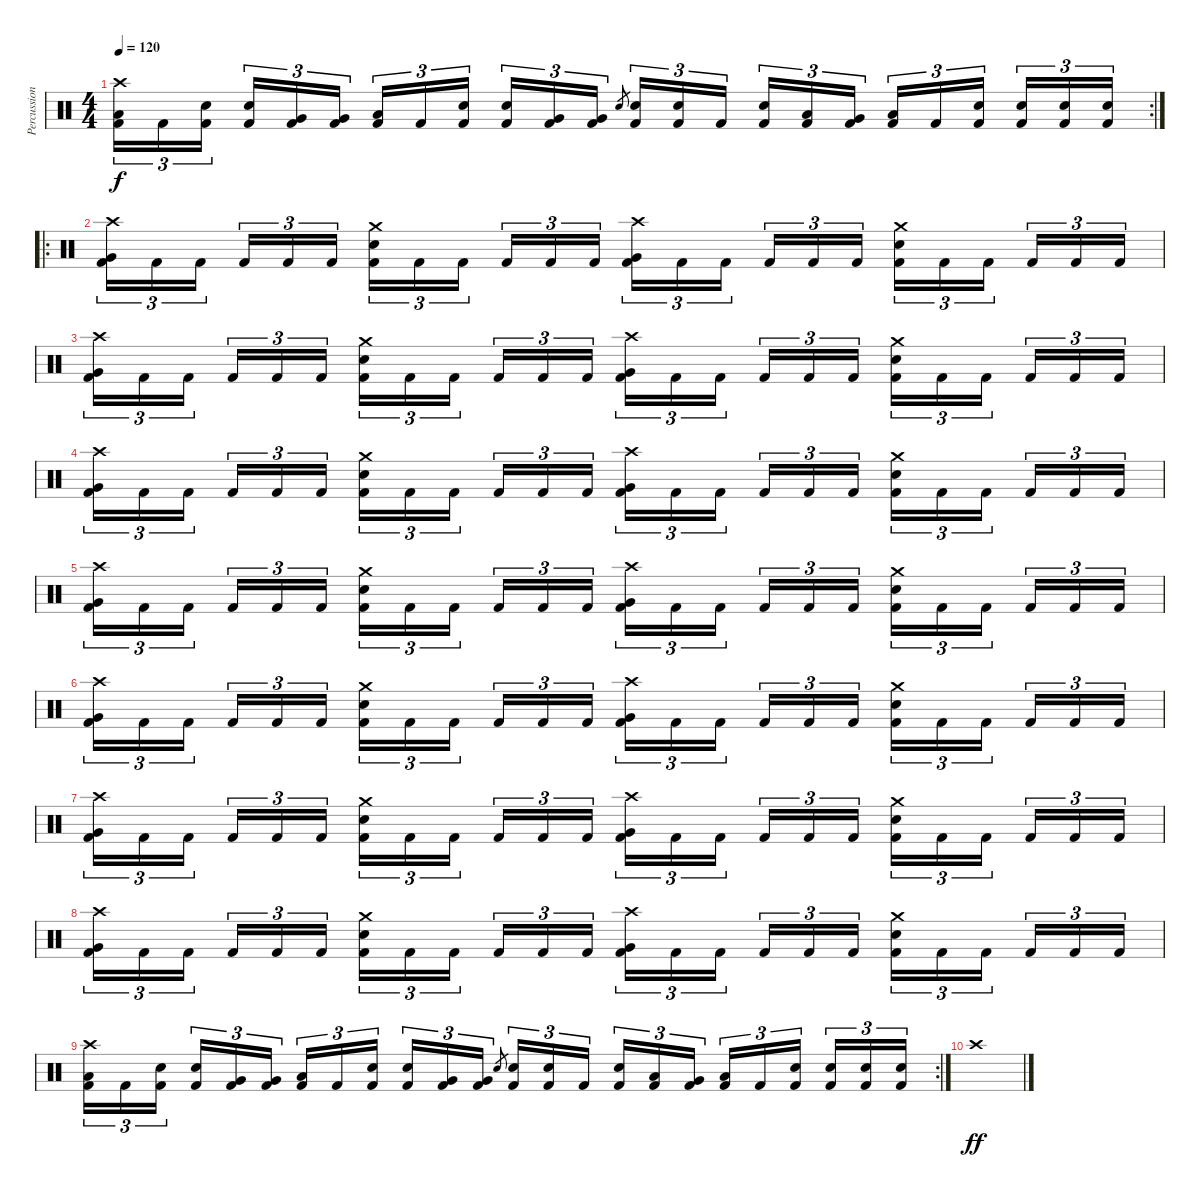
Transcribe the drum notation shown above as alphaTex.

\track ("Percussion" "Percussion") {instrument percussion}
\staff {score}
\articulation defaults
\rc 2
\ts (4 4)
\tempo 120
\clef neutral
\ks c
("Crash high (hit)" "Low Floor Tom (hit)" "Kick (hit) 2").16{tu (3 2) dy f} "Kick (hit) 2".16{tu (3 2)} ("Electric Snare (hit)" "Kick (hit) 2").16{tu (3 2)} ("Electric Snare (hit)" "Kick (hit) 2").16{tu (3 2)} ("Very Low Tom (hit)" "Kick (hit) 2").16{tu (3 2)} ("Very Low Tom (hit)" "Kick (hit) 2").16{tu (3 2)} ("Low Floor Tom (hit)" "Kick (hit) 2").16{tu (3 2)} "Kick (hit) 2".16{tu (3 2)} ("Electric Snare (hit)" "Kick (hit) 2").16{tu (3 2)} ("Electric Snare (hit)" "Kick (hit) 2").16{tu (3 2)} ("Very Low Tom (hit)" "Kick (hit) 2").16{tu (3 2)} ("Very Low Tom (hit)" "Kick (hit) 2").16{tu (3 2)} "Electric Snare (hit)".8{gr} ("Electric Snare (hit)" "Kick (hit) 2").16{tu (3 2)} ("Electric Snare (hit)" "Kick (hit) 2").16{tu (3 2)} "Kick (hit) 2".16{tu (3 2)} ("Electric Snare (hit)" "Kick (hit) 2").16{tu (3 2)} ("Low Tom (hit)" "Kick (hit) 2").16{tu (3 2)} ("Very Low Tom (hit)" "Kick (hit) 2").16{tu (3 2)} ("Low Floor Tom (hit)" "Kick (hit) 2").16{tu (3 2)} "Kick (hit) 2".16{tu (3 2)} ("Electric Snare (hit)" "Kick (hit) 2").16{tu (3 2)} ("Electric Snare (hit)" "Kick (hit) 2").16{tu (3 2)} ("Electric Snare (hit)" "Kick (hit) 2").16{tu (3 2)} ("Electric Snare (hit)" "Kick (hit) 2").16{tu (3 2)} |
\ro
("Crash high (hit)" "Very Low Tom (hit)" "Kick (hit) 2").16{tu (3 2)} "Kick (hit) 2".16{tu (3 2)} "Kick (hit) 2".16{tu (3 2)} "Kick (hit) 2".16{tu (3 2)} "Kick (hit) 2".16{tu (3 2)} "Kick (hit) 2".16{tu (3 2)} ("Crash medium (hit)" "Electric Snare (hit)" "Kick (hit) 2").16{tu (3 2)} "Kick (hit) 2".16{tu (3 2)} "Kick (hit) 2".16{tu (3 2)} "Kick (hit) 2".16{tu (3 2)} "Kick (hit) 2".16{tu (3 2)} "Kick (hit) 2".16{tu (3 2)} ("Crash high (hit)" "Very Low Tom (hit)" "Kick (hit) 2").16{tu (3 2)} "Kick (hit) 2".16{tu (3 2)} "Kick (hit) 2".16{tu (3 2)} "Kick (hit) 2".16{tu (3 2)} "Kick (hit) 2".16{tu (3 2)} "Kick (hit) 2".16{tu (3 2)} ("Crash medium (hit)" "Electric Snare (hit)" "Kick (hit) 2").16{tu (3 2)} "Kick (hit) 2".16{tu (3 2)} "Kick (hit) 2".16{tu (3 2)} "Kick (hit) 2".16{tu (3 2)} "Kick (hit) 2".16{tu (3 2)} "Kick (hit) 2".16{tu (3 2)} |
("Crash high (hit)" "Very Low Tom (hit)" "Kick (hit) 2").16{tu (3 2)} "Kick (hit) 2".16{tu (3 2)} "Kick (hit) 2".16{tu (3 2)} "Kick (hit) 2".16{tu (3 2)} "Kick (hit) 2".16{tu (3 2)} "Kick (hit) 2".16{tu (3 2)} ("Crash medium (hit)" "Electric Snare (hit)" "Kick (hit) 2").16{tu (3 2)} "Kick (hit) 2".16{tu (3 2)} "Kick (hit) 2".16{tu (3 2)} "Kick (hit) 2".16{tu (3 2)} "Kick (hit) 2".16{tu (3 2)} "Kick (hit) 2".16{tu (3 2)} ("Crash high (hit)" "Very Low Tom (hit)" "Kick (hit) 2").16{tu (3 2)} "Kick (hit) 2".16{tu (3 2)} "Kick (hit) 2".16{tu (3 2)} "Kick (hit) 2".16{tu (3 2)} "Kick (hit) 2".16{tu (3 2)} "Kick (hit) 2".16{tu (3 2)} ("Crash medium (hit)" "Electric Snare (hit)" "Kick (hit) 2").16{tu (3 2)} "Kick (hit) 2".16{tu (3 2)} "Kick (hit) 2".16{tu (3 2)} "Kick (hit) 2".16{tu (3 2)} "Kick (hit) 2".16{tu (3 2)} "Kick (hit) 2".16{tu (3 2)} |
("Crash high (hit)" "Very Low Tom (hit)" "Kick (hit) 2").16{tu (3 2)} "Kick (hit) 2".16{tu (3 2)} "Kick (hit) 2".16{tu (3 2)} "Kick (hit) 2".16{tu (3 2)} "Kick (hit) 2".16{tu (3 2)} "Kick (hit) 2".16{tu (3 2)} ("Crash medium (hit)" "Electric Snare (hit)" "Kick (hit) 2").16{tu (3 2)} "Kick (hit) 2".16{tu (3 2)} "Kick (hit) 2".16{tu (3 2)} "Kick (hit) 2".16{tu (3 2)} "Kick (hit) 2".16{tu (3 2)} "Kick (hit) 2".16{tu (3 2)} ("Crash high (hit)" "Very Low Tom (hit)" "Kick (hit) 2").16{tu (3 2)} "Kick (hit) 2".16{tu (3 2)} "Kick (hit) 2".16{tu (3 2)} "Kick (hit) 2".16{tu (3 2)} "Kick (hit) 2".16{tu (3 2)} "Kick (hit) 2".16{tu (3 2)} ("Crash medium (hit)" "Electric Snare (hit)" "Kick (hit) 2").16{tu (3 2)} "Kick (hit) 2".16{tu (3 2)} "Kick (hit) 2".16{tu (3 2)} "Kick (hit) 2".16{tu (3 2)} "Kick (hit) 2".16{tu (3 2)} "Kick (hit) 2".16{tu (3 2)} |
("Crash high (hit)" "Very Low Tom (hit)" "Kick (hit) 2").16{tu (3 2)} "Kick (hit) 2".16{tu (3 2)} "Kick (hit) 2".16{tu (3 2)} "Kick (hit) 2".16{tu (3 2)} "Kick (hit) 2".16{tu (3 2)} "Kick (hit) 2".16{tu (3 2)} ("Crash medium (hit)" "Electric Snare (hit)" "Kick (hit) 2").16{tu (3 2)} "Kick (hit) 2".16{tu (3 2)} "Kick (hit) 2".16{tu (3 2)} "Kick (hit) 2".16{tu (3 2)} "Kick (hit) 2".16{tu (3 2)} "Kick (hit) 2".16{tu (3 2)} ("Crash high (hit)" "Very Low Tom (hit)" "Kick (hit) 2").16{tu (3 2)} "Kick (hit) 2".16{tu (3 2)} "Kick (hit) 2".16{tu (3 2)} "Kick (hit) 2".16{tu (3 2)} "Kick (hit) 2".16{tu (3 2)} "Kick (hit) 2".16{tu (3 2)} ("Crash medium (hit)" "Electric Snare (hit)" "Kick (hit) 2").16{tu (3 2)} "Kick (hit) 2".16{tu (3 2)} "Kick (hit) 2".16{tu (3 2)} "Kick (hit) 2".16{tu (3 2)} "Kick (hit) 2".16{tu (3 2)} "Kick (hit) 2".16{tu (3 2)} |
("Crash high (hit)" "Very Low Tom (hit)" "Kick (hit) 2").16{tu (3 2)} "Kick (hit) 2".16{tu (3 2)} "Kick (hit) 2".16{tu (3 2)} "Kick (hit) 2".16{tu (3 2)} "Kick (hit) 2".16{tu (3 2)} "Kick (hit) 2".16{tu (3 2)} ("Crash medium (hit)" "Electric Snare (hit)" "Kick (hit) 2").16{tu (3 2)} "Kick (hit) 2".16{tu (3 2)} "Kick (hit) 2".16{tu (3 2)} "Kick (hit) 2".16{tu (3 2)} "Kick (hit) 2".16{tu (3 2)} "Kick (hit) 2".16{tu (3 2)} ("Crash high (hit)" "Very Low Tom (hit)" "Kick (hit) 2").16{tu (3 2)} "Kick (hit) 2".16{tu (3 2)} "Kick (hit) 2".16{tu (3 2)} "Kick (hit) 2".16{tu (3 2)} "Kick (hit) 2".16{tu (3 2)} "Kick (hit) 2".16{tu (3 2)} ("Crash medium (hit)" "Electric Snare (hit)" "Kick (hit) 2").16{tu (3 2)} "Kick (hit) 2".16{tu (3 2)} "Kick (hit) 2".16{tu (3 2)} "Kick (hit) 2".16{tu (3 2)} "Kick (hit) 2".16{tu (3 2)} "Kick (hit) 2".16{tu (3 2)} |
("Crash high (hit)" "Very Low Tom (hit)" "Kick (hit) 2").16{tu (3 2)} "Kick (hit) 2".16{tu (3 2)} "Kick (hit) 2".16{tu (3 2)} "Kick (hit) 2".16{tu (3 2)} "Kick (hit) 2".16{tu (3 2)} "Kick (hit) 2".16{tu (3 2)} ("Crash medium (hit)" "Electric Snare (hit)" "Kick (hit) 2").16{tu (3 2)} "Kick (hit) 2".16{tu (3 2)} "Kick (hit) 2".16{tu (3 2)} "Kick (hit) 2".16{tu (3 2)} "Kick (hit) 2".16{tu (3 2)} "Kick (hit) 2".16{tu (3 2)} ("Crash high (hit)" "Very Low Tom (hit)" "Kick (hit) 2").16{tu (3 2)} "Kick (hit) 2".16{tu (3 2)} "Kick (hit) 2".16{tu (3 2)} "Kick (hit) 2".16{tu (3 2)} "Kick (hit) 2".16{tu (3 2)} "Kick (hit) 2".16{tu (3 2)} ("Crash medium (hit)" "Electric Snare (hit)" "Kick (hit) 2").16{tu (3 2)} "Kick (hit) 2".16{tu (3 2)} "Kick (hit) 2".16{tu (3 2)} "Kick (hit) 2".16{tu (3 2)} "Kick (hit) 2".16{tu (3 2)} "Kick (hit) 2".16{tu (3 2)} |
("Crash high (hit)" "Very Low Tom (hit)" "Kick (hit) 2").16{tu (3 2)} "Kick (hit) 2".16{tu (3 2)} "Kick (hit) 2".16{tu (3 2)} "Kick (hit) 2".16{tu (3 2)} "Kick (hit) 2".16{tu (3 2)} "Kick (hit) 2".16{tu (3 2)} ("Crash medium (hit)" "Electric Snare (hit)" "Kick (hit) 2").16{tu (3 2)} "Kick (hit) 2".16{tu (3 2)} "Kick (hit) 2".16{tu (3 2)} "Kick (hit) 2".16{tu (3 2)} "Kick (hit) 2".16{tu (3 2)} "Kick (hit) 2".16{tu (3 2)} ("Crash high (hit)" "Very Low Tom (hit)" "Kick (hit) 2").16{tu (3 2)} "Kick (hit) 2".16{tu (3 2)} "Kick (hit) 2".16{tu (3 2)} "Kick (hit) 2".16{tu (3 2)} "Kick (hit) 2".16{tu (3 2)} "Kick (hit) 2".16{tu (3 2)} ("Crash medium (hit)" "Electric Snare (hit)" "Kick (hit) 2").16{tu (3 2)} "Kick (hit) 2".16{tu (3 2)} "Kick (hit) 2".16{tu (3 2)} "Kick (hit) 2".16{tu (3 2)} "Kick (hit) 2".16{tu (3 2)} "Kick (hit) 2".16{tu (3 2)} |
\rc 2
("Crash high (hit)" "Low Floor Tom (hit)" "Kick (hit) 2").16{tu (3 2)} "Kick (hit) 2".16{tu (3 2)} ("Electric Snare (hit)" "Kick (hit) 2").16{tu (3 2)} ("Electric Snare (hit)" "Kick (hit) 2").16{tu (3 2)} ("Very Low Tom (hit)" "Kick (hit) 2").16{tu (3 2)} ("Very Low Tom (hit)" "Kick (hit) 2").16{tu (3 2)} ("Low Floor Tom (hit)" "Kick (hit) 2").16{tu (3 2)} "Kick (hit) 2".16{tu (3 2)} ("Electric Snare (hit)" "Kick (hit) 2").16{tu (3 2)} ("Electric Snare (hit)" "Kick (hit) 2").16{tu (3 2)} ("Very Low Tom (hit)" "Kick (hit) 2").16{tu (3 2)} ("Very Low Tom (hit)" "Kick (hit) 2").16{tu (3 2)} "Electric Snare (hit)".8{gr} ("Electric Snare (hit)" "Kick (hit) 2").16{tu (3 2)} ("Electric Snare (hit)" "Kick (hit) 2").16{tu (3 2)} "Kick (hit) 2".16{tu (3 2)} ("Electric Snare (hit)" "Kick (hit) 2").16{tu (3 2)} ("Low Tom (hit)" "Kick (hit) 2").16{tu (3 2)} ("Very Low Tom (hit)" "Kick (hit) 2").16{tu (3 2)} ("Low Floor Tom (hit)" "Kick (hit) 2").16{tu (3 2)} "Kick (hit) 2".16{tu (3 2)} ("Electric Snare (hit)" "Kick (hit) 2").16{tu (3 2)} ("Electric Snare (hit)" "Kick (hit) 2").16{tu (3 2)} ("Electric Snare (hit)" "Kick (hit) 2").16{tu (3 2)} ("Electric Snare (hit)" "Kick (hit) 2").16{tu (3 2)} |
"Crash high (hit)".1{dy ff}
